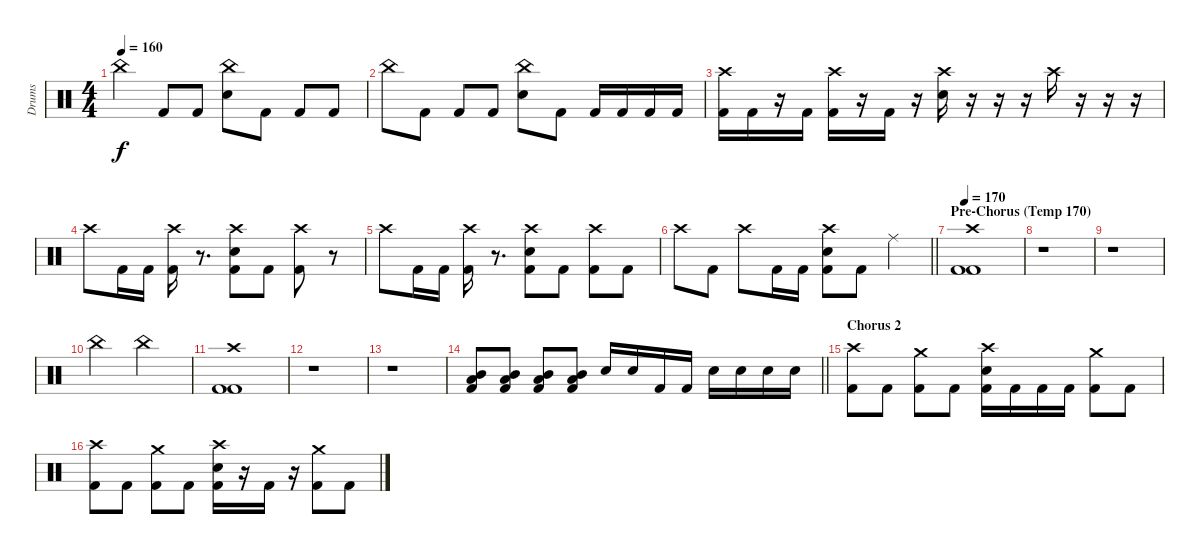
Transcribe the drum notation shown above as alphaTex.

\track ("Drums" "Drums") {instrument percussion}
\staff {score}
\articulation defaults
\ts (4 4)
\tempo 160
\clef neutral
\ks c "China (hit)".4{dy f} "Kick (hit) 2".8 "Kick (hit) 2".8
("China (hit)" "Electric Snare (hit)").8 "Kick (hit) 2".8 "Kick (hit) 2".8 "Kick (hit) 2".8 |
"China (hit)".8 "Kick (hit) 2".8 "Kick (hit) 2".8 "Kick (hit) 2".8 ("China (hit)" "Electric Snare (hit)").8 "Kick (hit) 2".8 "Kick (hit) 2".16 "Kick (hit) 2".16 "Kick (hit) 2".16 "Kick (hit) 2".16 |
("Kick (hit) 2" "Crash high (hit)").16 "Kick (hit) 2".16 r.16 "Kick (hit) 2".16 ("Kick (hit) 2" "Crash high (hit)").16 r.16 "Kick (hit) 2".16 r.16 ("Electric Snare (hit)" "Crash high (hit)").16 r.16 r.16 r.16 "Crash high (hit)".16 r.16 r.16 r.16 |
"Crash high (hit)".8 "Kick (hit) 2".16 "Kick (hit) 2".16 ("Crash high (hit)" "Kick (hit) 2").16 r.8{d} ("Electric Snare (hit)" "Kick (hit) 2" "Crash high (hit)").8 "Kick (hit) 2".8 ("Crash high (hit)" "Kick (hit) 2").8 r.8 |
"Crash high (hit)".8 "Kick (hit) 2".16 "Kick (hit) 2".16 ("Crash high (hit)" "Kick (hit) 2").16 r.8{d} ("Electric Snare (hit)" "Kick (hit) 2" "Crash high (hit)").8 "Kick (hit) 2".8 ("Crash high (hit)" "Kick (hit) 2").8 "Kick (hit) 2".8 |
\barLineRight lightlight "Crash high (hit)".8 "Kick (hit) 2".8 "Crash high (hit)".8 "Kick (hit) 2".16 "Kick (hit) 2".16
("Kick (hit) 2" "Crash high (hit)" "Electric Snare (hit)").8 "Kick (hit) 2".8 "Ride (middle)".4 |
\section ("" "Pre-Chorus (Temp 170)")
\tempo 170
("Kick (hit) 2" "Crash high (hit)" "Kick (hit) 2").1 |
r.1 |
r.1 |
"China (hit)".2 "China (hit)".2 |
("Kick (hit) 2" "Crash high (hit)" "Kick (hit) 2").1 |
r.1 |
r.1 |
\barLineRight lightlight
("Low Tom (hit)" "Mid Tom (hit)" "Kick (hit) 2").8 ("Low Tom (hit)" "Mid Tom (hit)" "Kick (hit) 2").8 ("Low Tom (hit)" "Mid Tom (hit)" "Kick (hit) 2").8 ("Low Tom (hit)" "Mid Tom (hit)" "Kick (hit) 2").8 "Electric Snare (hit)".16 "Electric Snare (hit)".16 "Kick (hit) 2".16 "Kick (hit) 2".16 "Electric Snare (hit)".16 "Electric Snare (hit)".16 "Electric Snare (hit)".16 "Electric Snare (hit)".16 |
\section ("" "Chorus 2")
("Crash high (hit)" "Kick (hit) 2").8 "Kick (hit) 2".8 ("Crash medium (hit)" "Kick (hit) 2").8 "Kick (hit) 2".8 ("Crash high (hit)" "Electric Snare (hit)" "Kick (hit) 2").16 "Kick (hit) 2".16 "Kick (hit) 2".16 "Kick (hit) 2".16 ("Crash medium (hit)" "Kick (hit) 2").8 "Kick (hit) 2".8 |
("Crash high (hit)" "Kick (hit) 2").8 "Kick (hit) 2".8 ("Crash medium (hit)" "Kick (hit) 2").8 "Kick (hit) 2".8 ("Crash high (hit)" "Electric Snare (hit)" "Kick (hit) 2").16 r.16 "Kick (hit) 2".16 r.16 ("Crash medium (hit)" "Kick (hit) 2").8 "Kick (hit) 2".8
